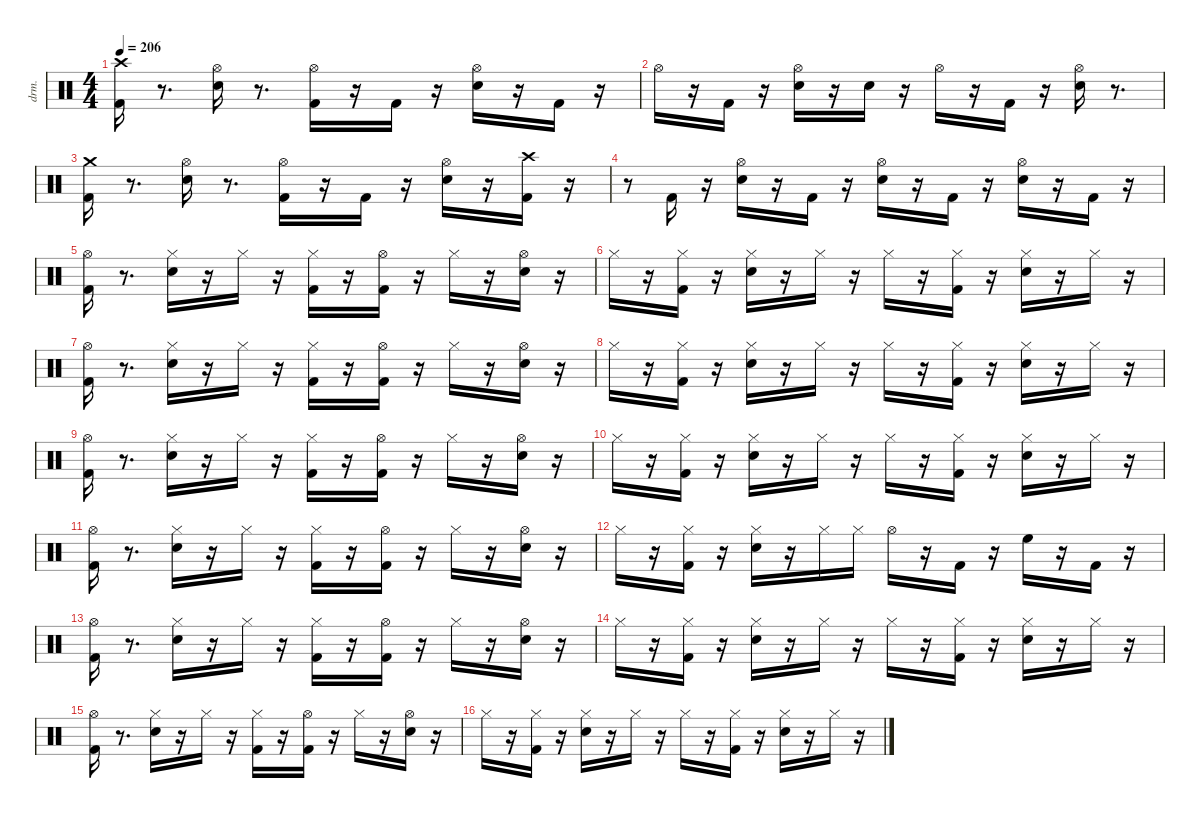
\defaultSystemsLayout 4
\hideDynamics
\bracketExtendMode nobrackets
\otherSystemsTrackNameOrientation horizontal
\track ("EZdrummer 3" "drm.") {instrument percussion}
\staff {score}
\articulation defaults
\ts (4 4)
\tempo 206
\clef neutral
\ks aminor
("Kick (hit) 2" "Crash high (hit)"{acc #}).16{dy ff beam Down} r.8{d beam Down} ("Snare (hit) 2" "Hi-Hat (open)"{acc #}).16{beam Down} r.8{d beam Down} ("Kick (hit) 2" "Hi-Hat (open)"{acc #}).16{dy f beam Down} r.16{beam Down} "Kick (hit) 2".16{dy ff beam Up} r.16{beam Up} ("Snare (hit) 2" "Hi-Hat (open)"{acc #}).16{beam Down} r.16{beam Down} "Kick (hit) 2".16{beam Up} r.16{beam Up} |
"Hi-Hat (open)"{acc #}.16{dy fff beam Down} r.16{beam Down} "Kick (hit) 2".16{dy ff beam Up} r.16{beam Up} ("Snare (hit) 2" "Hi-Hat (open)"{acc #}).16{beam Down} r.16{beam Down} "Snare (hit) 2".16{dy p beam Down} r.16{beam Down} "Hi-Hat (open)"{acc #}.16{dy ff beam Down} r.16{beam Down} "Kick (hit) 2".16{beam Up} r.16{beam Up} ("Snare (hit) 2" "Hi-Hat (open)"{acc #}).16{beam Down} r.8{d beam Down} |
("Kick (hit) 2" "Crash medium (hit)").16{beam Down} r.8{d beam Down} ("Snare (hit) 2" "Hi-Hat (open)"{acc #}).16{beam Down} r.8{d beam Down} ("Kick (hit) 2" "Hi-Hat (open)"{acc #}).16{dy f beam Down} r.16{beam Down} "Kick (hit) 2".16{dy ff beam Up} r.16{beam Up} ("Snare (hit) 2" "Hi-Hat (open)"{acc #}).16{beam Down} r.16{beam Down} ("Kick (hit) 2" "Crash high (hit)"{acc #}).16{beam Down} r.16{beam Down} |
r.8{beam Down} "Kick (hit) 2".16{beam Up} r.16{beam Up} ("Snare (hit) 2" "Hi-Hat (open)"{acc #}).16{beam Down} r.16{beam Down} "Kick (hit) 2".16{beam Up} r.16{beam Up} ("Snare (hit) 2" "Hi-Hat (open)"{acc #}).16{beam Down} r.16{beam Down} "Kick (hit) 2".16{beam Up} r.16{beam Up} ("Snare (hit) 2" "Hi-Hat (open)"{acc #}).16{beam Down} r.16{beam Down} "Kick (hit) 2".16{dy pp beam Up} r.16{beam Up} |
("Kick (hit) 2" "Hi-Hat (open)"{acc #}).16{dy ff beam Down} r.8{d beam Down} ("Snare (hit) 2" "Hi-Hat (closed)"{acc #}).16{beam Down} r.16{beam Down} "Hi-Hat (closed)"{acc #}.16{dy p beam Down} r.16{beam Down} ("Kick (hit) 2" "Hi-Hat (closed)"{acc #}).16{dy ff beam Down} r.16{beam Down} ("Kick (hit) 2" "Hi-Hat (open)"{acc #}).16{beam Down} r.16{beam Down} "Hi-Hat (closed)"{acc #}.16{dy p beam Down} r.16{beam Down} ("Snare (hit) 2" "Hi-Hat (open)"{acc #}).16{dy ff beam Down} r.16{beam Down} |
"Hi-Hat (closed)"{acc #}.16{dy p beam Down} r.16{beam Down} ("Kick (hit) 2" "Hi-Hat (closed)"{acc #}).16{dy ff beam Down} r.16{beam Down} ("Snare (hit) 2" "Hi-Hat (closed)"{acc #}).16{beam Down} r.16{beam Down} "Hi-Hat (closed)"{acc #}.16{dy p beam Down} r.16{beam Down} "Hi-Hat (closed)"{acc #}.16{dy fff beam Down} r.16{beam Down} ("Kick (hit) 2" "Hi-Hat (closed)"{acc #}).16{dy ff beam Down} r.16{beam Down} ("Snare (hit) 2" "Hi-Hat (closed)"{acc #}).16{beam Down} r.16{beam Down} "Hi-Hat (closed)"{acc #}.16{dy p beam Down} r.16{beam Down} |
("Kick (hit) 2" "Hi-Hat (open)"{acc #}).16{dy ff beam Down} r.8{d beam Down} ("Snare (hit) 2" "Hi-Hat (closed)"{acc #}).16{beam Down} r.16{beam Down} "Hi-Hat (closed)"{acc #}.16{dy p beam Down} r.16{beam Down} ("Kick (hit) 2" "Hi-Hat (closed)"{acc #}).16{dy ff beam Down} r.16{beam Down} ("Kick (hit) 2" "Hi-Hat (open)"{acc #}).16{beam Down} r.16{beam Down} "Hi-Hat (closed)"{acc #}.16{dy p beam Down} r.16{beam Down} ("Snare (hit) 2" "Hi-Hat (open)"{acc #}).16{dy ff beam Down} r.16{beam Down} |
"Hi-Hat (closed)"{acc #}.16{dy p beam Down} r.16{beam Down} ("Kick (hit) 2" "Hi-Hat (closed)"{acc #}).16{dy ff beam Down} r.16{beam Down} ("Snare (hit) 2" "Hi-Hat (closed)"{acc #}).16{beam Down} r.16{beam Down} "Hi-Hat (closed)"{acc #}.16{dy p beam Down} r.16{beam Down} "Hi-Hat (closed)"{acc #}.16{dy fff beam Down} r.16{beam Down} ("Kick (hit) 2" "Hi-Hat (closed)"{acc #}).16{dy ff beam Down} r.16{beam Down} ("Snare (hit) 2" "Hi-Hat (closed)"{acc #}).16{beam Down} r.16{beam Down} "Hi-Hat (closed)"{acc #}.16{dy p beam Down} r.16{beam Down} |
("Kick (hit) 2" "Hi-Hat (open)"{acc #}).16{dy ff beam Down} r.8{d beam Down} ("Snare (hit) 2" "Hi-Hat (closed)"{acc #}).16{beam Down} r.16{beam Down} "Hi-Hat (closed)"{acc #}.16{dy p beam Down} r.16{beam Down} ("Kick (hit) 2" "Hi-Hat (closed)"{acc #}).16{dy ff beam Down} r.16{beam Down} ("Kick (hit) 2" "Hi-Hat (open)"{acc #}).16{beam Down} r.16{beam Down} "Hi-Hat (closed)"{acc #}.16{dy p beam Down} r.16{beam Down} ("Snare (hit) 2" "Hi-Hat (open)"{acc #}).16{dy ff beam Down} r.16{beam Down} |
"Hi-Hat (closed)"{acc #}.16{dy p beam Down} r.16{beam Down} ("Kick (hit) 2" "Hi-Hat (closed)"{acc #}).16{dy ff beam Down} r.16{beam Down} ("Snare (hit) 2" "Hi-Hat (closed)"{acc #}).16{beam Down} r.16{beam Down} "Hi-Hat (closed)"{acc #}.16{dy p beam Down} r.16{beam Down} "Hi-Hat (closed)"{acc #}.16{dy fff beam Down} r.16{beam Down} ("Kick (hit) 2" "Hi-Hat (closed)"{acc #}).16{dy ff beam Down} r.16{beam Down} ("Snare (hit) 2" "Hi-Hat (closed)"{acc #}).16{beam Down} r.16{beam Down} "Hi-Hat (closed)"{acc #}.16{dy p beam Down} r.16{beam Down} |
("Kick (hit) 2" "Hi-Hat (open)"{acc #}).16{dy ff beam Down} r.8{d beam Down} ("Snare (hit) 2" "Hi-Hat (closed)"{acc #}).16{beam Down} r.16{beam Down} "Hi-Hat (closed)"{acc #}.16{dy p beam Down} r.16{beam Down} ("Kick (hit) 2" "Hi-Hat (closed)"{acc #}).16{dy ff beam Down} r.16{beam Down} ("Kick (hit) 2" "Hi-Hat (open)"{acc #}).16{beam Down} r.16{beam Down} "Hi-Hat (closed)"{acc #}.16{dy p beam Down} r.16{beam Down} ("Snare (hit) 2" "Hi-Hat (open)"{acc #}).16{dy ff beam Down} r.16{beam Down} |
"Hi-Hat (closed)"{acc #}.16{dy p beam Down} r.16{beam Down} ("Kick (hit) 2" "Hi-Hat (closed)"{acc #}).16{dy ff beam Down} r.16{beam Down} ("Snare (hit) 2" "Hi-Hat (closed)"{acc #}).16{beam Down} r.16{beam Down} "Hi-Hat (closed)"{acc #}.16{dy fff beam Down} "Hi-Hat (closed)"{acc #}.16{beam Down} "Hi-Hat (open)"{acc #}.16{beam Down} r.16{beam Down} "Kick (hit) 2".16{dy ff beam Up} r.16{beam Up} "High Floor Tom (hit)".16{dy f beam Down} r.16{beam Down} "Kick (hit) 2".16{beam Up} r.16{beam Up} |
("Kick (hit) 2" "Hi-Hat (open)"{acc #}).16{dy ff beam Down} r.8{d beam Down} ("Snare (hit) 2" "Hi-Hat (closed)"{acc #}).16{beam Down} r.16{beam Down} "Hi-Hat (closed)"{acc #}.16{dy p beam Down} r.16{beam Down} ("Kick (hit) 2" "Hi-Hat (closed)"{acc #}).16{dy ff beam Down} r.16{beam Down} ("Kick (hit) 2" "Hi-Hat (open)"{acc #}).16{beam Down} r.16{beam Down} "Hi-Hat (closed)"{acc #}.16{dy p beam Down} r.16{beam Down} ("Snare (hit) 2" "Hi-Hat (open)"{acc #}).16{dy ff beam Down} r.16{beam Down} |
"Hi-Hat (closed)"{acc #}.16{dy p beam Down} r.16{beam Down} ("Kick (hit) 2" "Hi-Hat (closed)"{acc #}).16{dy ff beam Down} r.16{beam Down} ("Snare (hit) 2" "Hi-Hat (closed)"{acc #}).16{beam Down} r.16{beam Down} "Hi-Hat (closed)"{acc #}.16{dy p beam Down} r.16{beam Down} "Hi-Hat (closed)"{acc #}.16{dy fff beam Down} r.16{beam Down} ("Kick (hit) 2" "Hi-Hat (closed)"{acc #}).16{dy ff beam Down} r.16{beam Down} ("Snare (hit) 2" "Hi-Hat (closed)"{acc #}).16{beam Down} r.16{beam Down} "Hi-Hat (closed)"{acc #}.16{dy p beam Down} r.16{beam Down} |
("Kick (hit) 2" "Hi-Hat (open)"{acc #}).16{dy ff beam Down} r.8{d beam Down} ("Snare (hit) 2" "Hi-Hat (closed)"{acc #}).16{beam Down} r.16{beam Down} "Hi-Hat (closed)"{acc #}.16{dy p beam Down} r.16{beam Down} ("Kick (hit) 2" "Hi-Hat (closed)"{acc #}).16{dy ff beam Down} r.16{beam Down} ("Kick (hit) 2" "Hi-Hat (open)"{acc #}).16{beam Down} r.16{beam Down} "Hi-Hat (closed)"{acc #}.16{dy p beam Down} r.16{beam Down} ("Snare (hit) 2" "Hi-Hat (open)"{acc #}).16{dy ff beam Down} r.16{beam Down} |
"Hi-Hat (closed)"{acc #}.16{dy p beam Down} r.16{beam Down} ("Kick (hit) 2" "Hi-Hat (closed)"{acc #}).16{dy ff beam Down} r.16{beam Down} ("Snare (hit) 2" "Hi-Hat (closed)"{acc #}).16{beam Down} r.16{beam Down} "Hi-Hat (closed)"{acc #}.16{dy p beam Down} r.16{beam Down} "Hi-Hat (closed)"{acc #}.16{dy fff beam Down} r.16{beam Down} ("Kick (hit) 2" "Hi-Hat (closed)"{acc #}).16{dy ff beam Down} r.16{beam Down} ("Snare (hit) 2" "Hi-Hat (closed)"{acc #}).16{beam Down} r.16{beam Down} "Hi-Hat (closed)"{acc #}.16{dy p beam Down} r.16{beam Down}
